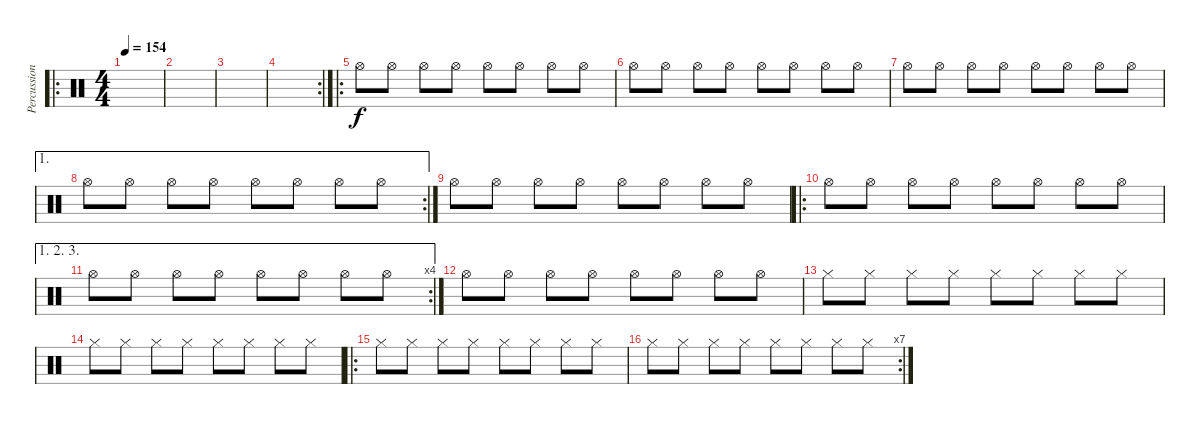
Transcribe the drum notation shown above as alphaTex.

\track ("Percussions" "Percussion") {instrument percussion}
\staff {score}
\articulation defaults
\ro
\ts (4 4)
\tempo 154
\clef neutral
\ks c
|
|
|
\rc 2
|
\ro "Hi-Hat (open)".8 "Hi-Hat (open)".8 "Hi-Hat (open)".8 "Hi-Hat (open)".8 "Hi-Hat (open)".8 "Hi-Hat (open)".8 "Hi-Hat (open)".8 "Hi-Hat (open)".8
|
"Hi-Hat (open)".8 "Hi-Hat (open)".8 "Hi-Hat (open)".8 "Hi-Hat (open)".8 "Hi-Hat (open)".8 "Hi-Hat (open)".8 "Hi-Hat (open)".8 "Hi-Hat (open)".8 |
"Hi-Hat (open)".8 "Hi-Hat (open)".8 "Hi-Hat (open)".8 "Hi-Hat (open)".8 "Hi-Hat (open)".8 "Hi-Hat (open)".8 "Hi-Hat (open)".8 "Hi-Hat (open)".8 |
\ae 1
\rc 2 "Hi-Hat (open)".8 "Hi-Hat (open)".8 "Hi-Hat (open)".8 "Hi-Hat (open)".8 "Hi-Hat (open)".8 "Hi-Hat (open)".8 "Hi-Hat (open)".8 "Hi-Hat (open)".8
|
"Hi-Hat (open)".8 "Hi-Hat (open)".8 "Hi-Hat (open)".8 "Hi-Hat (open)".8 "Hi-Hat (open)".8 "Hi-Hat (open)".8 "Hi-Hat (open)".8 "Hi-Hat (open)".8 |
\ro "Hi-Hat (open)".8 "Hi-Hat (open)".8 "Hi-Hat (open)".8 "Hi-Hat (open)".8 "Hi-Hat (open)".8 "Hi-Hat (open)".8 "Hi-Hat (open)".8 "Hi-Hat (open)".8
|
\ae (1 2 3)
\rc 4 "Hi-Hat (open)".8 "Hi-Hat (open)".8 "Hi-Hat (open)".8 "Hi-Hat (open)".8 "Hi-Hat (open)".8 "Hi-Hat (open)".8 "Hi-Hat (open)".8 "Hi-Hat (open)".8
|
"Hi-Hat (open)".8 "Hi-Hat (open)".8 "Hi-Hat (open)".8 "Hi-Hat (open)".8 "Hi-Hat (open)".8 "Hi-Hat (open)".8 "Hi-Hat (open)".8 "Hi-Hat (open)".8 |
"Hi-Hat (closed)".8 "Hi-Hat (closed)".8 "Hi-Hat (closed)".8 "Hi-Hat (closed)".8 "Hi-Hat (closed)".8 "Hi-Hat (closed)".8 "Hi-Hat (closed)".8 "Hi-Hat (closed)".8 |
"Hi-Hat (closed)".8 "Hi-Hat (closed)".8 "Hi-Hat (closed)".8 "Hi-Hat (closed)".8 "Hi-Hat (closed)".8 "Hi-Hat (closed)".8 "Hi-Hat (closed)".8 "Hi-Hat (closed)".8 |
\ro "Hi-Hat (closed)".8 "Hi-Hat (closed)".8 "Hi-Hat (closed)".8 "Hi-Hat (closed)".8 "Hi-Hat (closed)".8 "Hi-Hat (closed)".8 "Hi-Hat (closed)".8 "Hi-Hat (closed)".8
|
\rc 7 "Hi-Hat (closed)".8 "Hi-Hat (closed)".8 "Hi-Hat (closed)".8 "Hi-Hat (closed)".8 "Hi-Hat (closed)".8 "Hi-Hat (closed)".8 "Hi-Hat (closed)".8 "Hi-Hat (closed)".8
